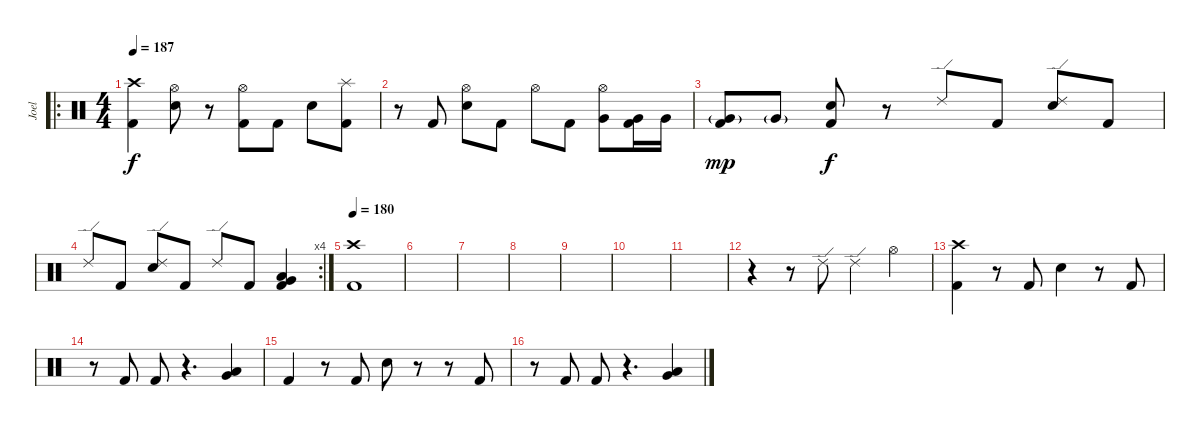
\track ("Joel" "Joel") {instrument percussion}
\staff {score}
\articulation defaults
\ro
\ts (4 4)
\tempo 187
\clef neutral
\ks c
("Crash high (hit)" "Kick (hit) 2").4{dy f} ("Hi-Hat (open)" "Snare (hit) 2").8 r.8 ("Hi-Hat (open)" "Kick (hit) 2").8 "Kick (hit) 2".8 "Snare (hit) 2".8 ("Splash (hit)" "Kick (hit) 2").8 |
r.8 "Kick (hit) 2".8 ("Hi-Hat (open)" "Snare (hit) 2").8 "Kick (hit) 2".8 "Hi-Hat (open)".8 "Kick (hit) 2".8 ("Hi-Hat (open)" "Very Low Tom (hit)").8 ("Very Low Tom (hit)" "Kick (hit) 2").16 "Very Low Tom (hit)".16 |
("Very Low Tom (hit)"{g} "Kick (hit) 2").8{dy mp} "Very Low Tom (hit)"{g}.8 ("Snare (hit) 2" "Kick (hit) 2").8{dy f} r.8 "Ride (edge) 2".8 "Kick (hit) 2".8 ("Ride (edge) 2" "Snare (hit) 2").8 "Kick (hit) 2".8 |
\rc 4 "Ride (edge) 2".8 "Kick (hit) 2".8
("Ride (edge) 2" "Snare (hit) 2").8 "Kick (hit) 2".8 "Ride (edge) 2".8 "Kick (hit) 2".8 ("Very Low Tom (hit)" "Low Floor Tom (hit)" "Kick (hit) 2").4 |
\tempo 180
("Crash high (hit)" "Kick (hit) 2").1 |
|
|
|
|
|
|
r.4 r.8 "Ride (edge) 2".8 "Ride (edge) 2".4 "Hi-Hat (open)".4 |
("Crash high (hit)" "Kick (hit) 2").4 r.8 "Kick (hit) 2".8 "Snare (hit) 2".4 r.8 "Kick (hit) 2".8 |
r.8 "Kick (hit) 2".8 "Kick (hit) 2".8 r.4{d} ("Very Low Tom (hit)" "Low Floor Tom (hit)").4 |
"Kick (hit) 2".4 r.8 "Kick (hit) 2".8 "Snare (hit) 2".8 r.8 r.8 "Kick (hit) 2".8 |
r.8 "Kick (hit) 2".8 "Kick (hit) 2".8 r.4{d} ("Very Low Tom (hit)" "Low Floor Tom (hit)").4
